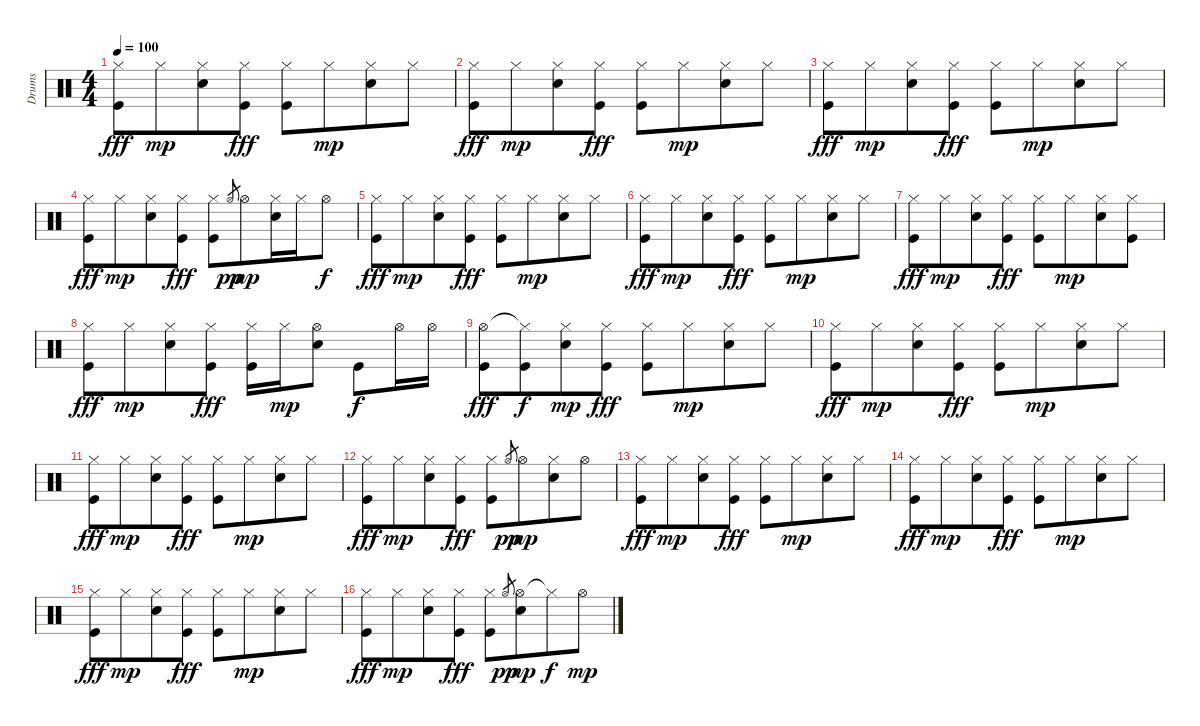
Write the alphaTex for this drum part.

\track ("Drums" "Drums") {instrument percussion}
\staff {score}
\articulation defaults
\ts (4 4)
\tempo 100
\clef neutral
\ks c
("Hi-Hat (closed)" "Kick (hit)").8{dy fff} "Hi-Hat (closed)".8{dy mp beam merge} ("Hi-Hat (closed)" "Snare (hit) 2").8 ("Hi-Hat (closed)" "Kick (hit)").8{dy fff} ("Hi-Hat (closed)" "Kick (hit)").8 "Hi-Hat (closed)".8{dy mp beam merge} ("Hi-Hat (closed)" "Snare (hit) 2").8 "Hi-Hat (closed)".8 |
("Hi-Hat (closed)" "Kick (hit)").8{dy fff} "Hi-Hat (closed)".8{dy mp beam merge} ("Hi-Hat (closed)" "Snare (hit) 2").8 ("Hi-Hat (closed)" "Kick (hit)").8{dy fff} ("Hi-Hat (closed)" "Kick (hit)").8 "Hi-Hat (closed)".8{dy mp beam merge} ("Hi-Hat (closed)" "Snare (hit) 2").8 "Hi-Hat (closed)".8 |
("Hi-Hat (closed)" "Kick (hit)").8{dy fff} "Hi-Hat (closed)".8{dy mp beam merge} ("Hi-Hat (closed)" "Snare (hit) 2").8 ("Hi-Hat (closed)" "Kick (hit)").8{dy fff} ("Hi-Hat (closed)" "Kick (hit)").8 "Hi-Hat (closed)".8{dy mp beam merge} ("Hi-Hat (closed)" "Snare (hit) 2").8 "Hi-Hat (closed)".8 |
("Hi-Hat (closed)" "Kick (hit)").8{dy fff} "Hi-Hat (closed)".8{dy mp beam merge} ("Hi-Hat (closed)" "Snare (hit) 2").8 ("Hi-Hat (closed)" "Kick (hit)").8{dy fff} ("Hi-Hat (closed)" "Kick (hit)").8 "Hi-Hat (open)"{x}.8{gr dy pp} "Hi-Hat (open)".8{dy mp beam merge} ("Hi-Hat (closed)" "Snare (hit) 2").16 "Hi-Hat (closed)".16 "Hi-Hat (open)".8{dy f} |
("Hi-Hat (closed)" "Kick (hit)").8{dy fff} "Hi-Hat (closed)".8{dy mp beam merge} ("Hi-Hat (closed)" "Snare (hit) 2").8 ("Hi-Hat (closed)" "Kick (hit)").8{dy fff} ("Hi-Hat (closed)" "Kick (hit)").8 "Hi-Hat (closed)".8{dy mp beam merge} ("Hi-Hat (closed)" "Snare (hit) 2").8 "Hi-Hat (closed)".8 |
("Hi-Hat (closed)" "Kick (hit)").8{dy fff} "Hi-Hat (closed)".8{dy mp beam merge} ("Hi-Hat (closed)" "Snare (hit) 2").8 ("Hi-Hat (closed)" "Kick (hit)").8{dy fff} ("Hi-Hat (closed)" "Kick (hit)").8 "Hi-Hat (closed)".8{dy mp beam merge} ("Hi-Hat (closed)" "Snare (hit) 2").8 "Hi-Hat (closed)".8 |
("Hi-Hat (closed)" "Kick (hit)").8{dy fff} "Hi-Hat (closed)".8{dy mp beam merge} ("Hi-Hat (closed)" "Snare (hit) 2").8 ("Hi-Hat (closed)" "Kick (hit)").8{dy fff} ("Hi-Hat (closed)" "Kick (hit)").8 "Hi-Hat (closed)".8{dy mp beam merge} ("Hi-Hat (closed)" "Snare (hit) 2").8 ("Hi-Hat (closed)" "Kick (hit)").8 |
("Hi-Hat (closed)" "Kick (hit)").8{dy fff} "Hi-Hat (closed)".8{dy mp beam merge} ("Hi-Hat (closed)" "Snare (hit) 2").8 ("Hi-Hat (closed)" "Kick (hit)").8{dy fff} ("Hi-Hat (closed)" "Kick (hit)").16 "Hi-Hat (closed)".16{dy mp beam merge} ("Hi-Hat (open)" "Snare (hit) 2").8 "Kick (hit)".8{dy f} "Hi-Hat (open)".16 "Hi-Hat (open)".16 |
("Hi-Hat (open)" "Kick (hit)").8{dy fff} ("Hi-Hat (closed)"{t} "Kick (hit)").8{dy f beam merge} ("Hi-Hat (closed)" "Snare (hit) 2").8{dy mp} ("Hi-Hat (closed)" "Kick (hit)").8{dy fff} ("Hi-Hat (closed)" "Kick (hit)").8 "Hi-Hat (closed)".8{dy mp beam merge} ("Hi-Hat (closed)" "Snare (hit) 2").8 "Hi-Hat (closed)".8 |
("Hi-Hat (closed)" "Kick (hit)").8{dy fff} "Hi-Hat (closed)".8{dy mp beam merge} ("Hi-Hat (closed)" "Snare (hit) 2").8 ("Hi-Hat (closed)" "Kick (hit)").8{dy fff} ("Hi-Hat (closed)" "Kick (hit)").8 "Hi-Hat (closed)".8{dy mp beam merge} ("Hi-Hat (closed)" "Snare (hit) 2").8 "Hi-Hat (closed)".8 |
("Hi-Hat (closed)" "Kick (hit)").8{dy fff} "Hi-Hat (closed)".8{dy mp beam merge} ("Hi-Hat (closed)" "Snare (hit) 2").8 ("Hi-Hat (closed)" "Kick (hit)").8{dy fff} ("Hi-Hat (closed)" "Kick (hit)").8 "Hi-Hat (closed)".8{dy mp beam merge} ("Hi-Hat (closed)" "Snare (hit) 2").8 "Hi-Hat (closed)".8 |
("Hi-Hat (closed)" "Kick (hit)").8{dy fff} "Hi-Hat (closed)".8{dy mp beam merge} ("Hi-Hat (closed)" "Snare (hit) 2").8 ("Hi-Hat (closed)" "Kick (hit)").8{dy fff} ("Hi-Hat (closed)" "Kick (hit)").8 "Hi-Hat (open)"{x}.8{gr dy pp} "Hi-Hat (open)".8{dy mp beam merge} ("Hi-Hat (closed)" "Snare (hit) 2").8 "Hi-Hat (open)".8 |
("Hi-Hat (closed)" "Kick (hit)").8{dy fff} "Hi-Hat (closed)".8{dy mp beam merge} ("Hi-Hat (closed)" "Snare (hit) 2").8 ("Hi-Hat (closed)" "Kick (hit)").8{dy fff} ("Hi-Hat (closed)" "Kick (hit)").8 "Hi-Hat (closed)".8{dy mp beam merge} ("Hi-Hat (closed)" "Snare (hit) 2").8 "Hi-Hat (closed)".8 |
("Hi-Hat (closed)" "Kick (hit)").8{dy fff} "Hi-Hat (closed)".8{dy mp beam merge} ("Hi-Hat (closed)" "Snare (hit) 2").8 ("Hi-Hat (closed)" "Kick (hit)").8{dy fff} ("Hi-Hat (closed)" "Kick (hit)").8 "Hi-Hat (closed)".8{dy mp beam merge} ("Hi-Hat (closed)" "Snare (hit) 2").8 "Hi-Hat (closed)".8 |
("Hi-Hat (closed)" "Kick (hit)").8{dy fff} "Hi-Hat (closed)".8{dy mp beam merge} ("Hi-Hat (closed)" "Snare (hit) 2").8 ("Hi-Hat (closed)" "Kick (hit)").8{dy fff} ("Hi-Hat (closed)" "Kick (hit)").8 "Hi-Hat (closed)".8{dy mp beam merge} ("Hi-Hat (closed)" "Snare (hit) 2").8 "Hi-Hat (closed)".8 |
("Hi-Hat (closed)" "Kick (hit)").8{dy fff} "Hi-Hat (closed)".8{dy mp beam merge} ("Hi-Hat (closed)" "Snare (hit) 2").8 ("Hi-Hat (closed)" "Kick (hit)").8{dy fff} ("Hi-Hat (closed)" "Kick (hit)").8 "Hi-Hat (open)"{x}.8{gr dy pp} ("Hi-Hat (open)" "Snare (hit) 2").8{dy mp beam merge} "Hi-Hat (closed)"{t}.8{dy f} "Hi-Hat (open)".8{dy mp}
